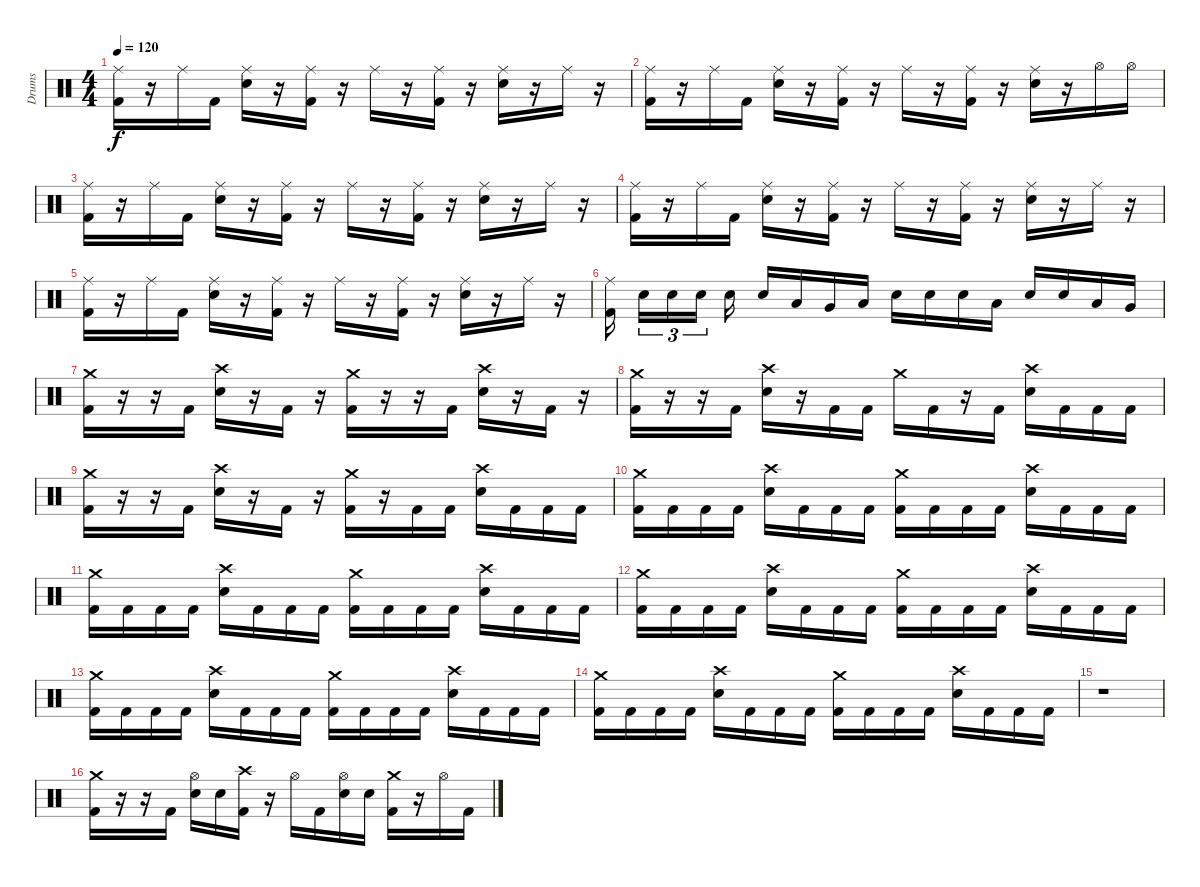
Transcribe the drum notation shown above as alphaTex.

\track ("Drums" "Drums") {instrument percussion}
\staff {score}
\articulation defaults
\ts (4 4)
\tempo 120
\clef neutral
\ks c
("Ride (middle)" "Kick (hit) 2").16{dy f} r.16 "Ride (middle)".16 "Kick (hit) 2".16 ("Ride (middle)" "Electric Snare (hit)").16 r.16 ("Ride (middle)" "Kick (hit) 2").16 r.16 "Ride (middle)".16 r.16 ("Ride (middle)" "Kick (hit) 2").16 r.16 ("Ride (middle)" "Electric Snare (hit)").16 r.16 "Ride (middle)".16 r.16 |
("Ride (middle)" "Kick (hit) 2").16 r.16 "Ride (middle)".16 "Kick (hit) 2".16 ("Ride (middle)" "Electric Snare (hit)").16 r.16 ("Ride (middle)" "Kick (hit) 2").16 r.16 "Ride (middle)".16 r.16 ("Ride (middle)" "Kick (hit) 2").16 r.16 ("Ride (middle)" "Electric Snare (hit)").16 r.16 "Hi-Hat (open)".16 "Hi-Hat (open)".16 |
("Ride (middle)" "Kick (hit) 2").16 r.16 "Ride (middle)".16 "Kick (hit) 2".16 ("Ride (middle)" "Electric Snare (hit)").16 r.16 ("Ride (middle)" "Kick (hit) 2").16 r.16 "Ride (middle)".16 r.16 ("Ride (middle)" "Kick (hit) 2").16 r.16 ("Ride (middle)" "Electric Snare (hit)").16 r.16 "Ride (middle)".16 r.16 |
("Ride (middle)" "Kick (hit) 2").16 r.16 "Ride (middle)".16 "Kick (hit) 2".16 ("Ride (middle)" "Electric Snare (hit)").16 r.16 ("Ride (middle)" "Kick (hit) 2").16 r.16 "Ride (middle)".16 r.16 ("Ride (middle)" "Kick (hit) 2").16 r.16 ("Ride (middle)" "Electric Snare (hit)").16 r.16 "Ride (middle)".16 r.16 |
("Ride (middle)" "Kick (hit) 2").16 r.16 "Ride (middle)".16 "Kick (hit) 2".16 ("Ride (middle)" "Electric Snare (hit)").16 r.16 ("Ride (middle)" "Kick (hit) 2").16 r.16 "Ride (middle)".16 r.16 ("Ride (middle)" "Kick (hit) 2").16 r.16 ("Ride (middle)" "Electric Snare (hit)").16 r.16 "Ride (middle)".16 r.16 |
("Ride (middle)" "Kick (hit) 2").16 "Electric Snare (hit)".16{tu (3 2)} "Electric Snare (hit)".16{tu (3 2)} "Electric Snare (hit)".16{tu (3 2)} "Electric Snare (hit)".16 "Electric Snare (hit)".16 "Low Tom (hit)".16 "Very Low Tom (hit)".16 "Low Floor Tom (hit)".16 "Electric Snare (hit)".16 "Electric Snare (hit)".16 "Electric Snare (hit)".16 "Low Floor Tom (hit)".16 "Electric Snare (hit)".16 "Electric Snare (hit)".16 "Low Tom (hit)".16 "Very Low Tom (hit)".16 |
\section ("" "")
("Crash medium (hit)" "Kick (hit) 2").16 r.16 r.16 "Kick (hit) 2".16 ("Crash high (hit)" "Electric Snare (hit)").16 r.16 "Kick (hit) 2".16 r.16 ("Crash medium (hit)" "Kick (hit) 2").16 r.16 r.16 "Kick (hit) 2".16 ("Crash high (hit)" "Electric Snare (hit)").16 r.16 "Kick (hit) 2".16 r.16 |
("Crash medium (hit)" "Kick (hit) 2").16 r.16 r.16 "Kick (hit) 2".16 ("Crash high (hit)" "Electric Snare (hit)").16 r.16 "Kick (hit) 2".16 "Kick (hit) 2".16 "Crash medium (hit)".16 "Kick (hit) 2".16 r.16 "Kick (hit) 2".16 ("Crash high (hit)" "Electric Snare (hit)").16 "Kick (hit) 2".16 "Kick (hit) 2".16 "Kick (hit) 2".16 |
("Crash medium (hit)" "Kick (hit) 2").16 r.16 r.16 "Kick (hit) 2".16 ("Crash high (hit)" "Electric Snare (hit)").16 r.16 "Kick (hit) 2".16 r.16 ("Crash medium (hit)" "Kick (hit) 2").16 r.16 "Kick (hit) 2".16 "Kick (hit) 2".16 ("Crash high (hit)" "Electric Snare (hit)").16 "Kick (hit) 2".16 "Kick (hit) 2".16 "Kick (hit) 2".16 |
("Crash medium (hit)" "Kick (hit) 2").16 "Kick (hit) 2".16 "Kick (hit) 2".16 "Kick (hit) 2".16 ("Crash high (hit)" "Electric Snare (hit)").16 "Kick (hit) 2".16 "Kick (hit) 2".16 "Kick (hit) 2".16 ("Crash medium (hit)" "Kick (hit) 2").16 "Kick (hit) 2".16 "Kick (hit) 2".16 "Kick (hit) 2".16 ("Crash high (hit)" "Electric Snare (hit)").16 "Kick (hit) 2".16 "Kick (hit) 2".16 "Kick (hit) 2".16 |
("Crash medium (hit)" "Kick (hit) 2").16 "Kick (hit) 2".16 "Kick (hit) 2".16 "Kick (hit) 2".16 ("Crash high (hit)" "Electric Snare (hit)").16 "Kick (hit) 2".16 "Kick (hit) 2".16 "Kick (hit) 2".16 ("Crash medium (hit)" "Kick (hit) 2").16 "Kick (hit) 2".16 "Kick (hit) 2".16 "Kick (hit) 2".16 ("Crash high (hit)" "Electric Snare (hit)").16 "Kick (hit) 2".16 "Kick (hit) 2".16 "Kick (hit) 2".16 |
("Crash medium (hit)" "Kick (hit) 2").16 "Kick (hit) 2".16 "Kick (hit) 2".16 "Kick (hit) 2".16 ("Crash high (hit)" "Electric Snare (hit)").16 "Kick (hit) 2".16 "Kick (hit) 2".16 "Kick (hit) 2".16 ("Crash medium (hit)" "Kick (hit) 2").16 "Kick (hit) 2".16 "Kick (hit) 2".16 "Kick (hit) 2".16 ("Crash high (hit)" "Electric Snare (hit)").16 "Kick (hit) 2".16 "Kick (hit) 2".16 "Kick (hit) 2".16 |
("Crash medium (hit)" "Kick (hit) 2").16 "Kick (hit) 2".16 "Kick (hit) 2".16 "Kick (hit) 2".16 ("Crash high (hit)" "Electric Snare (hit)").16 "Kick (hit) 2".16 "Kick (hit) 2".16 "Kick (hit) 2".16 ("Crash medium (hit)" "Kick (hit) 2").16 "Kick (hit) 2".16 "Kick (hit) 2".16 "Kick (hit) 2".16 ("Crash high (hit)" "Electric Snare (hit)").16 "Kick (hit) 2".16 "Kick (hit) 2".16 "Kick (hit) 2".16 |
("Crash medium (hit)" "Kick (hit) 2").16 "Kick (hit) 2".16 "Kick (hit) 2".16 "Kick (hit) 2".16 ("Crash high (hit)" "Electric Snare (hit)").16 "Kick (hit) 2".16 "Kick (hit) 2".16 "Kick (hit) 2".16 ("Crash medium (hit)" "Kick (hit) 2").16 "Kick (hit) 2".16 "Kick (hit) 2".16 "Kick (hit) 2".16 ("Crash high (hit)" "Electric Snare (hit)").16 "Kick (hit) 2".16 "Kick (hit) 2".16 "Kick (hit) 2".16 |
\section ("" "")
r.1 |
("Crash medium (hit)" "Kick (hit) 2").16 r.16 r.16 "Kick (hit) 2".16 ("Hi-Hat (open)" "Electric Snare (hit)").16 "Electric Snare (hit)".16 ("Crash high (hit)" "Kick (hit) 2").16 r.16 "Hi-Hat (open)".16 "Kick (hit) 2".16 ("Hi-Hat (open)" "Electric Snare (hit)").16 "Electric Snare (hit)".16 ("Crash medium (hit)" "Kick (hit) 2").16 r.16 "Hi-Hat (open)".16 "Kick (hit) 2".16
